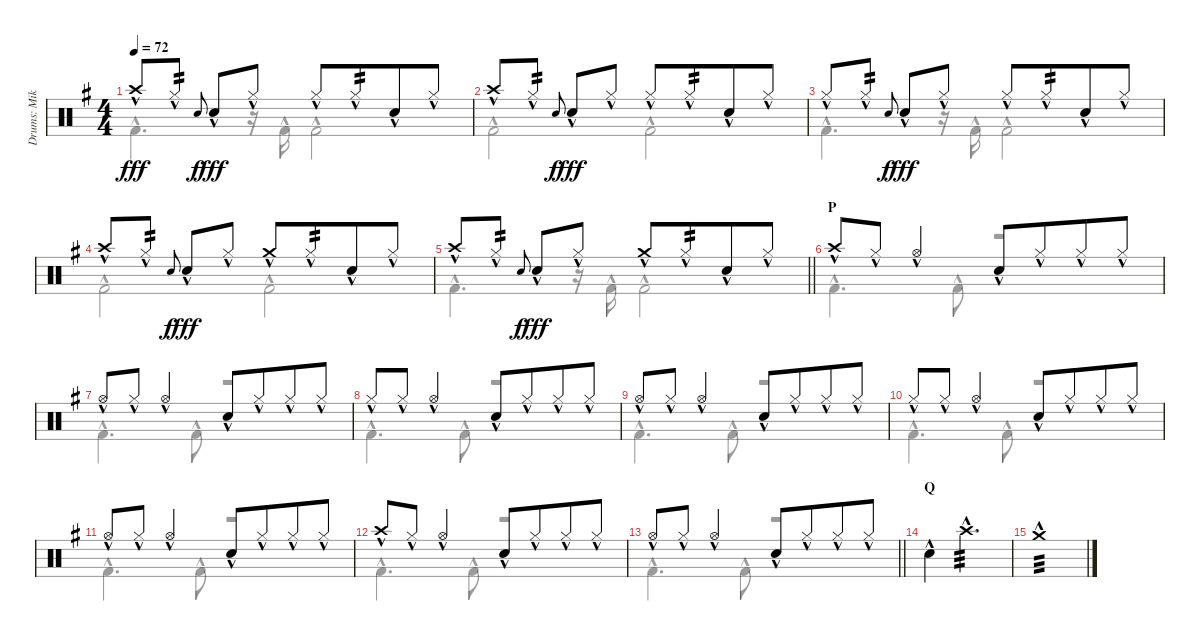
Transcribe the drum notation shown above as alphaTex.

\track ("Drums: Mike" "Drums: Mik") {instrument percussion}
\staff {score}
\articulation defaults
\voice
\ts (4 4)
\tempo 72
\clef neutral
\ks g "Crash high (hit)"{hac}.8{dy fff} "Hi-Hat (closed)"{hac}.8{tp 2} "Electric Snare (hit)".8{gr onbeat dy f beam merge} "Snare (hit) 2"{hac}.8{dy fff} "Hi-Hat (closed)"{hac}.8 "Hi-Hat (closed)"{hac}.8 "Hi-Hat (closed)"{hac}.8{tp 2 beam merge} "Snare (hit) 2"{hac}.8 "Hi-Hat (closed)"{hac}.8
|
"Crash high (hit)"{hac}.8 "Hi-Hat (closed)"{hac}.8{tp 2} "Electric Snare (hit)".8{gr onbeat dy f beam merge} "Snare (hit) 2"{hac}.8{dy fff} "Hi-Hat (closed)"{hac}.8 "Hi-Hat (closed)"{hac}.8 "Hi-Hat (closed)"{hac}.8{tp 2 beam merge} "Snare (hit) 2"{hac}.8 "Hi-Hat (closed)"{hac}.8 |
"Hi-Hat (closed)"{hac}.8 "Hi-Hat (closed)"{hac}.8{tp 2} "Electric Snare (hit)".8{gr onbeat dy f beam merge} "Snare (hit) 2"{hac}.8{dy fff} "Hi-Hat (closed)"{hac}.8 "Hi-Hat (closed)"{hac}.8 "Hi-Hat (closed)"{hac}.8{tp 2 beam merge} "Snare (hit) 2"{hac}.8 "Hi-Hat (closed)"{hac}.8 |
"Crash high (hit)"{hac}.8 "Hi-Hat (closed)"{hac}.8{tp 2} "Electric Snare (hit)".8{gr onbeat dy f beam merge} "Snare (hit) 2"{hac}.8{dy fff} "Hi-Hat (closed)"{hac}.8 "Crash medium (hit)"{hac}.8 "Hi-Hat (closed)"{hac}.8{tp 2 beam merge} "Snare (hit) 2"{hac}.8 "Hi-Hat (closed)"{hac}.8 |
\barLineRight lightlight "Crash high (hit)"{hac}.8 "Hi-Hat (closed)"{hac}.8{tp 2} "Electric Snare (hit)".8{gr onbeat dy f beam merge} "Snare (hit) 2"{hac}.8{dy fff} "Hi-Hat (closed)"{hac}.8 "Crash medium (hit)"{hac}.8 "Hi-Hat (closed)"{hac}.8{tp 2 beam merge} "Snare (hit) 2"{hac}.8 "Hi-Hat (closed)"{hac}.8
|
\section ("" "P")
"Crash high (hit)"{hac}.8 "Hi-Hat (closed)"{hac}.8 "Hi-Hat (open)"{hac}.4 "Electric Snare (hit)"{hac}.8 "Hi-Hat (closed)"{hac}.8{beam merge} "Hi-Hat (closed)"{hac}.8 "Hi-Hat (closed)"{hac}.8 |
"Hi-Hat (open)"{hac}.8 "Hi-Hat (closed)"{hac}.8 "Hi-Hat (open)"{hac}.4 "Electric Snare (hit)"{hac}.8 "Hi-Hat (closed)"{hac}.8{beam merge} "Hi-Hat (closed)"{hac}.8 "Hi-Hat (closed)"{hac}.8 |
"Hi-Hat (closed)"{hac}.8 "Hi-Hat (closed)"{hac}.8 "Hi-Hat (open)"{hac}.4 "Electric Snare (hit)"{hac}.8 "Hi-Hat (closed)"{hac}.8{beam merge} "Hi-Hat (closed)"{hac}.8 "Hi-Hat (closed)"{hac}.8 |
"Hi-Hat (open)"{hac}.8 "Hi-Hat (closed)"{hac}.8 "Hi-Hat (open)"{hac}.4 "Electric Snare (hit)"{hac}.8 "Hi-Hat (closed)"{hac}.8{beam merge} "Hi-Hat (closed)"{hac}.8 "Hi-Hat (closed)"{hac}.8 |
"Hi-Hat (closed)"{hac}.8 "Hi-Hat (closed)"{hac}.8 "Hi-Hat (open)"{hac}.4 "Electric Snare (hit)"{hac}.8 "Hi-Hat (closed)"{hac}.8{beam merge} "Hi-Hat (closed)"{hac}.8 "Hi-Hat (closed)"{hac}.8 |
"Hi-Hat (open)"{hac}.8 "Hi-Hat (closed)"{hac}.8 "Hi-Hat (open)"{hac}.4 "Electric Snare (hit)"{hac}.8 "Hi-Hat (closed)"{hac}.8{beam merge} "Hi-Hat (closed)"{hac}.8 "Hi-Hat (closed)"{hac}.8 |
"Crash high (hit)"{hac}.8 "Hi-Hat (closed)"{hac}.8 "Hi-Hat (open)"{hac}.4 "Electric Snare (hit)"{hac}.8 "Hi-Hat (closed)"{hac}.8{beam merge} "Hi-Hat (closed)"{hac}.8 "Hi-Hat (closed)"{hac}.8 |
\barLineRight lightlight "Hi-Hat (open)"{hac}.8 "Hi-Hat (closed)"{hac}.8 "Hi-Hat (open)"{hac}.4 "Electric Snare (hit)"{hac}.8 "Hi-Hat (closed)"{hac}.8{beam merge} "Hi-Hat (closed)"{hac}.8 "Hi-Hat (closed)"{hac}.8
|
\section ("" "Q")
"Snare (hit) 2"{hac}.4{volume 0} "Crash high (hit)"{hac}.2{d tp 3} |
"Crash medium (hit)"{hac}.1{tp 3} |
\voice
\clef neutral
\ottava regular
\simile none
\ks g "Kick (hit) 2"{hac}.4{d dy fff}
r.16 "Kick (hit) 2"{hac}.16 "Kick (hit) 2"{hac}.2 |
"Kick (hit) 2"{hac}.2 "Kick (hit) 2"{hac}.2 |
"Kick (hit) 2"{hac}.4{d} r.16 "Kick (hit) 2"{hac}.16 "Kick (hit) 2"{hac}.2 |
"Kick (hit) 2"{hac}.2 "Kick (hit) 2"{hac}.2 |
\barLineRight lightlight "Kick (hit) 2"{hac}.4{d}
r.16 "Kick (hit) 2"{hac}.16 "Kick (hit) 2"{hac}.2 |
"Kick (hit) 2"{hac}.4{d} "Kick (hit) 2"{hac}.8 r.2 |
"Kick (hit) 2"{hac}.4{d} "Kick (hit) 2"{hac}.8 r.2 |
"Kick (hit) 2"{hac}.4{d} "Kick (hit) 2"{hac}.8 r.2 |
"Kick (hit) 2"{hac}.4{d} "Kick (hit) 2"{hac}.8 r.2 |
"Kick (hit) 2"{hac}.4{d} "Kick (hit) 2"{hac}.8 r.2 |
"Kick (hit) 2"{hac}.4{d} "Kick (hit) 2"{hac}.8 r.2 |
"Kick (hit) 2"{hac}.4{d} "Kick (hit) 2"{hac}.8 r.2 |
\barLineRight lightlight "Kick (hit) 2"{hac}.4{d} "Kick (hit) 2"{hac}.8
r.2 |
|
|
